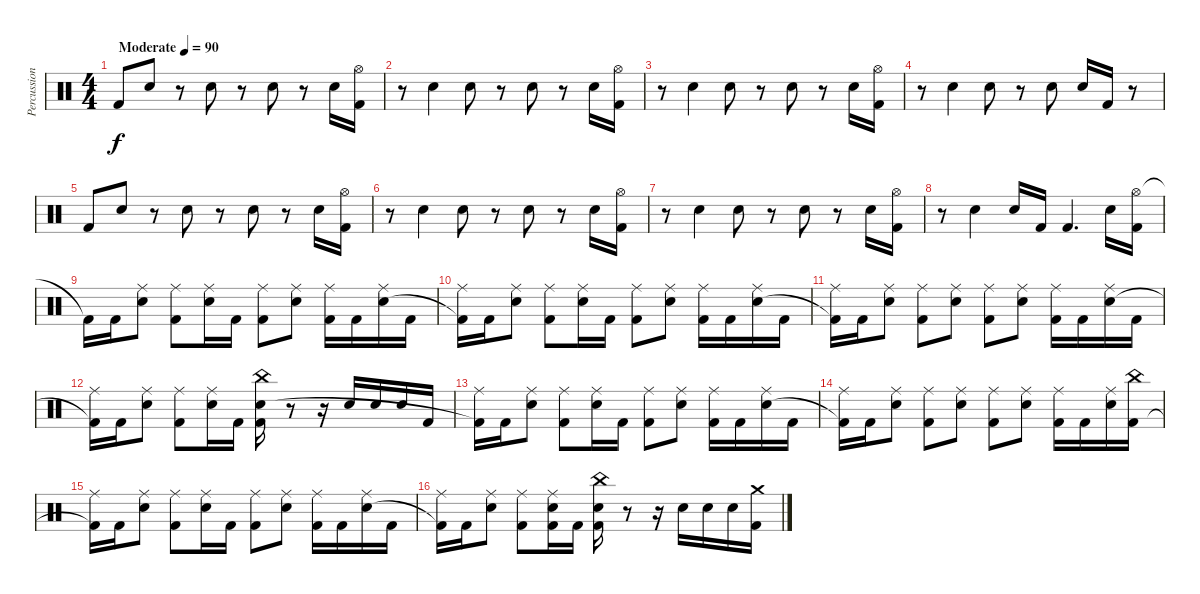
\track ("Percussion" "Percussion") {instrument percussion}
\staff {score}
\articulation defaults
\ts (4 4)
\tempo (90 "Moderate")
\clef neutral
\ks c "Kick (hit) 2".8{dy f} "Electric Snare (hit)".8
r.8 "Electric Snare (hit)".8 r.8 "Electric Snare (hit)".8 r.8 "Electric Snare (hit)".16 ("Hi-Hat (open)" "Kick (hit) 2").16 |
r.8 "Electric Snare (hit)".4 "Electric Snare (hit)".8 r.8 "Electric Snare (hit)".8 r.8 "Electric Snare (hit)".16 ("Hi-Hat (open)" "Kick (hit) 2").16 |
r.8 "Electric Snare (hit)".4 "Electric Snare (hit)".8 r.8 "Electric Snare (hit)".8 r.8 "Electric Snare (hit)".16 ("Hi-Hat (open)" "Kick (hit) 2").16 |
r.8 "Electric Snare (hit)".4 "Electric Snare (hit)".8 r.8 "Electric Snare (hit)".8 "Electric Snare (hit)".16 "Kick (hit) 2".16 r.8 |
"Kick (hit) 2".8 "Electric Snare (hit)".8 r.8 "Electric Snare (hit)".8 r.8 "Electric Snare (hit)".8 r.8 "Electric Snare (hit)".16 ("Hi-Hat (open)" "Kick (hit) 2").16 |
r.8 "Electric Snare (hit)".4 "Electric Snare (hit)".8 r.8 "Electric Snare (hit)".8 r.8 "Electric Snare (hit)".16 ("Hi-Hat (open)" "Kick (hit) 2").16 |
r.8 "Electric Snare (hit)".4 "Electric Snare (hit)".8 r.8 "Electric Snare (hit)".8 r.8 "Electric Snare (hit)".16 ("Hi-Hat (open)" "Kick (hit) 2").16 |
r.8 "Electric Snare (hit)".4 "Electric Snare (hit)".16 "Kick (hit) 2".16 "Kick (hit) 2".4{d} "Electric Snare (hit)".16 ("Hi-Hat (open)" "Kick (hit) 2").16 |
"Kick (hit) 2"{t}.16 "Kick (hit) 2".16 ("Ride (middle)" "Electric Snare (hit)").8 ("Ride (middle)" "Kick (hit) 2").8 ("Ride (middle)" "Electric Snare (hit)").16 "Kick (hit) 2".16 ("Ride (middle)" "Kick (hit) 2").8 ("Ride (middle)" "Electric Snare (hit)").8 ("Ride (middle)" "Kick (hit) 2").16 "Kick (hit) 2".16 ("Ride (middle)" "Electric Snare (hit)").16 "Kick (hit) 2".16 |
("Ride (middle)" "Kick (hit) 2"{t}).16 "Kick (hit) 2".16 ("Ride (middle)" "Electric Snare (hit)").8 ("Ride (middle)" "Kick (hit) 2").8 ("Ride (middle)" "Electric Snare (hit)").16 "Kick (hit) 2".16 ("Ride (middle)" "Kick (hit) 2").8 ("Ride (middle)" "Electric Snare (hit)").8 ("Ride (middle)" "Kick (hit) 2").16 "Kick (hit) 2".16 ("Ride (middle)" "Electric Snare (hit)").16 "Kick (hit) 2".16 |
("Ride (middle)" "Kick (hit) 2"{t}).16 "Kick (hit) 2".16 ("Ride (middle)" "Electric Snare (hit)").8 ("Ride (middle)" "Kick (hit) 2").8 ("Ride (middle)" "Electric Snare (hit)").8 ("Ride (middle)" "Kick (hit) 2").8 ("Ride (middle)" "Electric Snare (hit)").8 ("Ride (middle)" "Kick (hit) 2").16 "Kick (hit) 2".16 ("Ride (middle)" "Electric Snare (hit)").16 "Kick (hit) 2".16 |
("Ride (middle)" "Kick (hit) 2"{t}).16 "Kick (hit) 2".16 ("Ride (middle)" "Electric Snare (hit)").8 ("Ride (middle)" "Kick (hit) 2").8 ("Ride (middle)" "Electric Snare (hit)").16 "Kick (hit) 2".16 ("China (hit)" "Electric Snare (hit)" "Kick (hit) 2").16 r.8 r.16 "Electric Snare (hit)".16 "Electric Snare (hit)".16 "Electric Snare (hit)".16 "Kick (hit) 2".16 |
("Ride (middle)" "Kick (hit) 2"{t}).16 "Kick (hit) 2".16 ("Ride (middle)" "Electric Snare (hit)").8 ("Ride (middle)" "Kick (hit) 2").8 ("Ride (middle)" "Electric Snare (hit)").16 "Kick (hit) 2".16 ("Ride (middle)" "Kick (hit) 2").8 ("Ride (middle)" "Electric Snare (hit)").8 ("Ride (middle)" "Kick (hit) 2").16 "Kick (hit) 2".16 ("Ride (middle)" "Electric Snare (hit)").16 "Kick (hit) 2".16 |
("Ride (middle)" "Kick (hit) 2"{t}).16 "Kick (hit) 2".16 ("Ride (middle)" "Electric Snare (hit)").8 ("Ride (middle)" "Kick (hit) 2").8 ("Ride (middle)" "Electric Snare (hit)").8 ("Ride (middle)" "Kick (hit) 2").8 ("Ride (middle)" "Electric Snare (hit)").8 ("Ride (middle)" "Kick (hit) 2").16 "Kick (hit) 2".16 ("Ride (middle)" "Electric Snare (hit)").16 ("China (hit)" "Kick (hit) 2").16 |
("Ride (middle)" "Kick (hit) 2"{t}).16 "Kick (hit) 2".16 ("Ride (middle)" "Electric Snare (hit)").8 ("Ride (middle)" "Kick (hit) 2").8 ("Ride (middle)" "Electric Snare (hit)").16 "Kick (hit) 2".16 ("Ride (middle)" "Kick (hit) 2").8 ("Ride (middle)" "Electric Snare (hit)").8 ("Ride (middle)" "Kick (hit) 2").16 "Kick (hit) 2".16 ("Ride (middle)" "Electric Snare (hit)").16 "Kick (hit) 2".16 |
("Ride (middle)" "Kick (hit) 2"{t}).16 "Kick (hit) 2".16 ("Ride (middle)" "Electric Snare (hit)").8 ("Ride (middle)" "Kick (hit) 2").8 ("Ride (middle)" "Electric Snare (hit)" "Kick (hit) 2").16 "Kick (hit) 2".16 ("China (hit)" "Electric Snare (hit)" "Kick (hit) 2").16 r.8 r.16 "Electric Snare (hit)".16 "Electric Snare (hit)".16 "Electric Snare (hit)".16 ("Crash medium (hit)" "Kick (hit) 2").16
